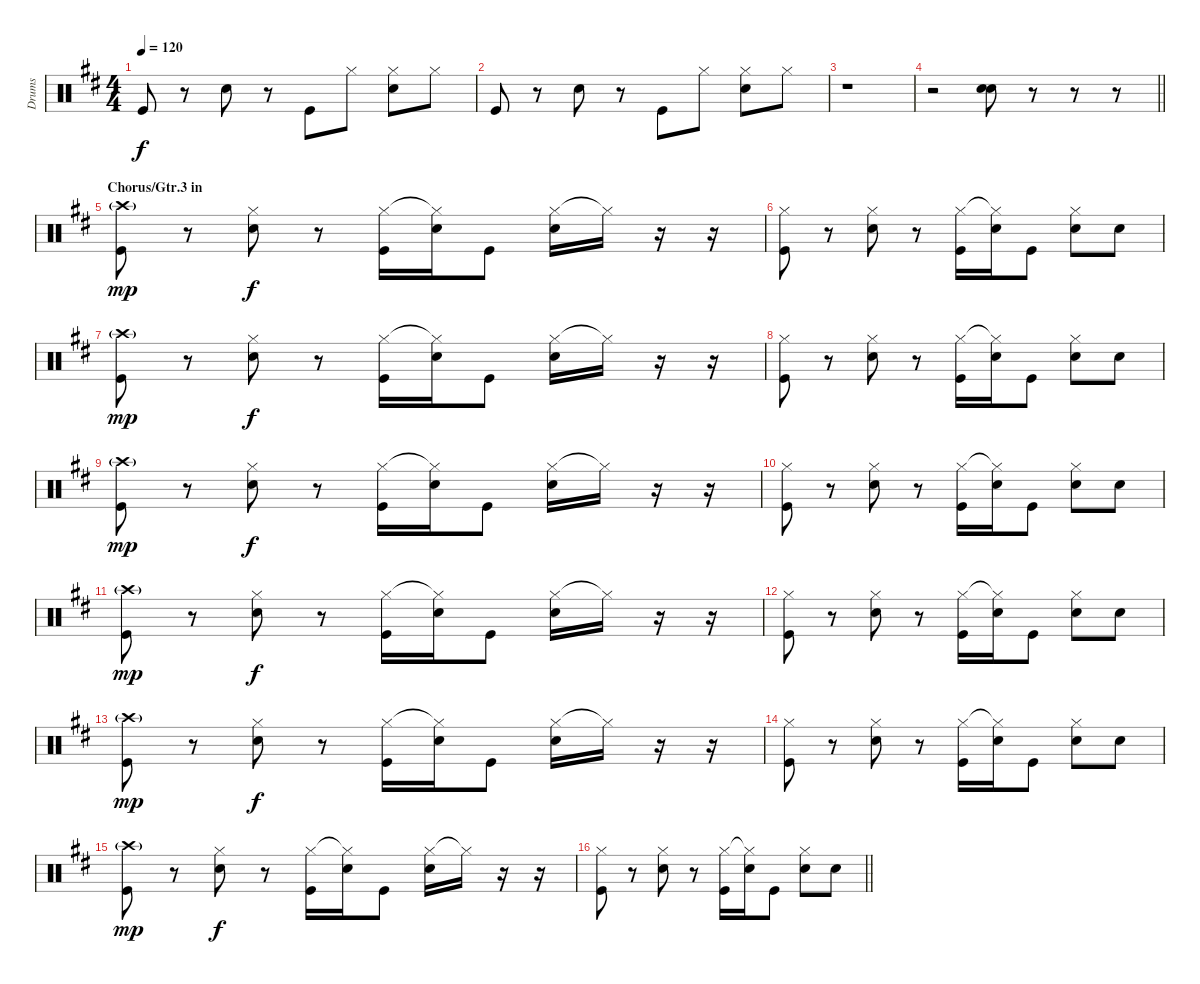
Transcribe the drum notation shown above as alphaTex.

\track ("Drums" "Drums") {instrument percussion}
\staff {score}
\articulation defaults
\ts (4 4)
\tempo 120
\clef neutral
\ks d "Kick (hit)".8{dy f}
r.8 "Snare (hit) 2".8 r.8 "Kick (hit)".8 "Hi-Hat (closed)".8 ("Hi-Hat (closed)" "Snare (hit) 2").8 "Hi-Hat (closed)".8 |
"Kick (hit)".8 r.8 "Snare (hit) 2".8 r.8 "Kick (hit)".8 "Hi-Hat (closed)".8 ("Hi-Hat (closed)" "Snare (hit) 2").8 "Hi-Hat (closed)".8 |
r.1 |
\barLineRight lightlight
r.2 ("Electric Snare (hit)" "Snare (hit) 2").8 r.8 r.8 r.8 |
\section ("" "Chorus/Gtr.3 in")
("Crash high (hit)"{g} "Kick (hit)").8{dy mp} r.8 ("Hi-Hat (closed)" "Snare (hit) 2").8{dy f} r.8 ("Hi-Hat (closed)" "Kick (hit)").16 ("Hi-Hat (closed)"{t} "Snare (hit) 2").16 "Kick (hit)".8 ("Hi-Hat (closed)" "Snare (hit) 2").16 "Hi-Hat (closed)"{t}.16 r.16 r.16 |
("Hi-Hat (closed)" "Kick (hit)").8 r.8 ("Hi-Hat (closed)" "Snare (hit) 2").8 r.8 ("Hi-Hat (closed)" "Kick (hit)").16 ("Hi-Hat (closed)"{t} "Snare (hit) 2").16 "Kick (hit)".8 ("Hi-Hat (closed)" "Snare (hit) 2").8 "Snare (hit) 2".8 |
("Crash high (hit)"{g} "Kick (hit)").8{dy mp} r.8 ("Hi-Hat (closed)" "Snare (hit) 2").8{dy f} r.8 ("Hi-Hat (closed)" "Kick (hit)").16 ("Hi-Hat (closed)"{t} "Snare (hit) 2").16 "Kick (hit)".8 ("Hi-Hat (closed)" "Snare (hit) 2").16 "Hi-Hat (closed)"{t}.16 r.16 r.16 |
("Hi-Hat (closed)" "Kick (hit)").8 r.8 ("Hi-Hat (closed)" "Snare (hit) 2").8 r.8 ("Hi-Hat (closed)" "Kick (hit)").16 ("Hi-Hat (closed)"{t} "Snare (hit) 2").16 "Kick (hit)".8 ("Hi-Hat (closed)" "Snare (hit) 2").8 "Snare (hit) 2".8 |
("Crash high (hit)"{g} "Kick (hit)").8{dy mp} r.8 ("Hi-Hat (closed)" "Snare (hit) 2").8{dy f} r.8 ("Hi-Hat (closed)" "Kick (hit)").16 ("Hi-Hat (closed)"{t} "Snare (hit) 2").16 "Kick (hit)".8 ("Hi-Hat (closed)" "Snare (hit) 2").16 "Hi-Hat (closed)"{t}.16 r.16 r.16 |
("Hi-Hat (closed)" "Kick (hit)").8 r.8 ("Hi-Hat (closed)" "Snare (hit) 2").8 r.8 ("Hi-Hat (closed)" "Kick (hit)").16 ("Hi-Hat (closed)"{t} "Snare (hit) 2").16 "Kick (hit)".8 ("Hi-Hat (closed)" "Snare (hit) 2").8 "Snare (hit) 2".8 |
("Crash high (hit)"{g} "Kick (hit)").8{dy mp} r.8 ("Hi-Hat (closed)" "Snare (hit) 2").8{dy f} r.8 ("Hi-Hat (closed)" "Kick (hit)").16 ("Hi-Hat (closed)"{t} "Snare (hit) 2").16 "Kick (hit)".8 ("Hi-Hat (closed)" "Snare (hit) 2").16 "Hi-Hat (closed)"{t}.16 r.16 r.16 |
("Hi-Hat (closed)" "Kick (hit)").8 r.8 ("Hi-Hat (closed)" "Snare (hit) 2").8 r.8 ("Hi-Hat (closed)" "Kick (hit)").16 ("Hi-Hat (closed)"{t} "Snare (hit) 2").16 "Kick (hit)".8 ("Hi-Hat (closed)" "Snare (hit) 2").8 "Snare (hit) 2".8 |
("Crash high (hit)"{g} "Kick (hit)").8{dy mp} r.8 ("Hi-Hat (closed)" "Snare (hit) 2").8{dy f} r.8 ("Hi-Hat (closed)" "Kick (hit)").16 ("Hi-Hat (closed)"{t} "Snare (hit) 2").16 "Kick (hit)".8 ("Hi-Hat (closed)" "Snare (hit) 2").16 "Hi-Hat (closed)"{t}.16 r.16 r.16 |
("Hi-Hat (closed)" "Kick (hit)").8 r.8 ("Hi-Hat (closed)" "Snare (hit) 2").8 r.8 ("Hi-Hat (closed)" "Kick (hit)").16 ("Hi-Hat (closed)"{t} "Snare (hit) 2").16 "Kick (hit)".8 ("Hi-Hat (closed)" "Snare (hit) 2").8 "Snare (hit) 2".8 |
("Crash high (hit)"{g} "Kick (hit)").8{dy mp} r.8 ("Hi-Hat (closed)" "Snare (hit) 2").8{dy f} r.8 ("Hi-Hat (closed)" "Kick (hit)").16 ("Hi-Hat (closed)"{t} "Snare (hit) 2").16 "Kick (hit)".8 ("Hi-Hat (closed)" "Snare (hit) 2").16 "Hi-Hat (closed)"{t}.16 r.16 r.16 |
\barLineRight lightlight
("Hi-Hat (closed)" "Kick (hit)").8 r.8 ("Hi-Hat (closed)" "Snare (hit) 2").8 r.8 ("Hi-Hat (closed)" "Kick (hit)").16 ("Hi-Hat (closed)"{t} "Snare (hit) 2").16 "Kick (hit)".8 ("Hi-Hat (closed)" "Snare (hit) 2").8 "Snare (hit) 2".8
